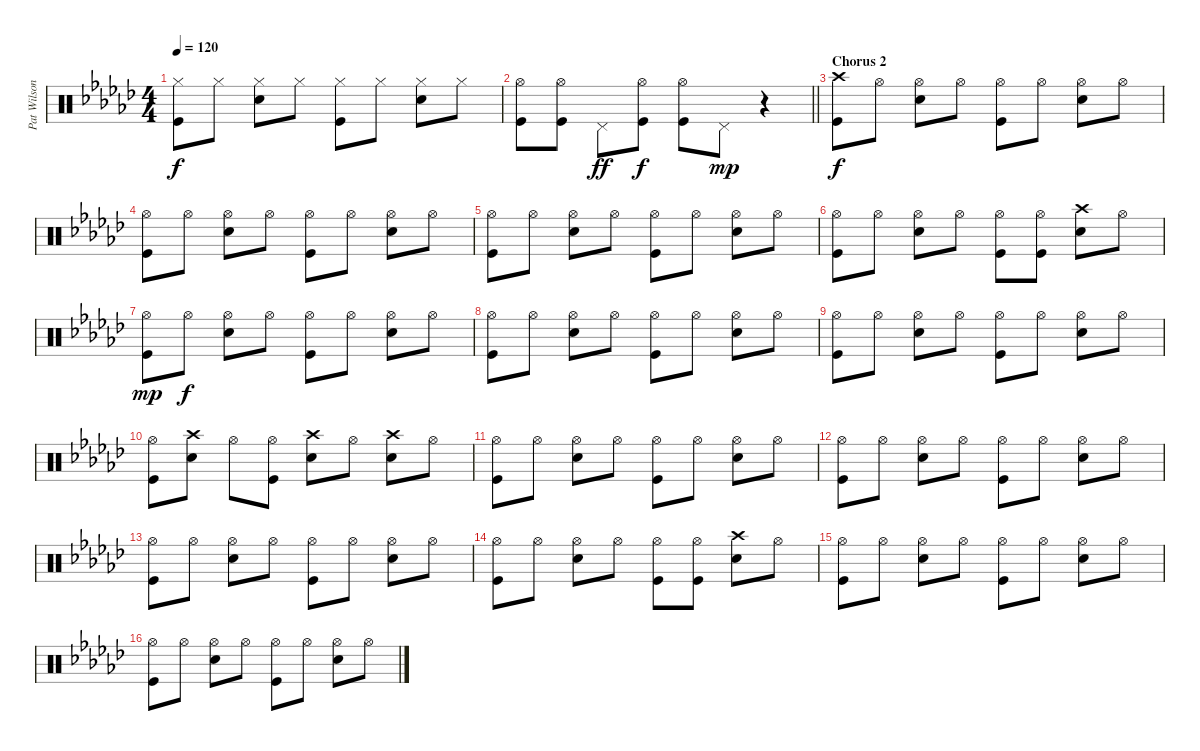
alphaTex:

\track ("Pat Wilson" "Pat Wilson") {instrument percussion}
\staff {score}
\articulation defaults
\ts (4 4)
\tempo 120
\clef neutral
\ks gb
("Hi-Hat (closed)" "Kick (hit)").8{dy f} "Hi-Hat (closed)".8 ("Hi-Hat (closed)" "Snare (hit) 2").8 "Hi-Hat (closed)".8 ("Hi-Hat (closed)" "Kick (hit)").8 "Hi-Hat (closed)".8 ("Hi-Hat (closed)" "Snare (hit) 2").8 "Hi-Hat (closed)".8 |
\barLineRight lightlight
("Hi-Hat (open)" "Kick (hit)").8 ("Hi-Hat (open)" "Kick (hit)").8 "Pedal Hi-Hat (hit)".8{dy ff} ("Hi-Hat (open)" "Kick (hit)").8{dy f} ("Hi-Hat (open)" "Kick (hit)").8 "Pedal Hi-Hat (hit)".8{dy mp} r.4 |
\section ("" "Chorus 2")
("Crash high (hit)" "Kick (hit)").8{dy f} "Hi-Hat (open)".8 ("Hi-Hat (open)" "Snare (hit) 2").8 "Hi-Hat (open)".8 ("Hi-Hat (open)" "Kick (hit)").8 "Hi-Hat (open)".8 ("Hi-Hat (open)" "Snare (hit) 2").8 "Hi-Hat (open)".8 |
("Hi-Hat (open)" "Kick (hit)").8 "Hi-Hat (open)".8 ("Hi-Hat (open)" "Snare (hit) 2").8 "Hi-Hat (open)".8 ("Hi-Hat (open)" "Kick (hit)").8 "Hi-Hat (open)".8 ("Hi-Hat (open)" "Snare (hit) 2").8 "Hi-Hat (open)".8 |
("Hi-Hat (open)" "Kick (hit)").8 "Hi-Hat (open)".8 ("Hi-Hat (open)" "Snare (hit) 2").8 "Hi-Hat (open)".8 ("Hi-Hat (open)" "Kick (hit)").8 "Hi-Hat (open)".8 ("Hi-Hat (open)" "Snare (hit) 2").8 "Hi-Hat (open)".8 |
("Hi-Hat (open)" "Kick (hit)").8 "Hi-Hat (open)".8 ("Hi-Hat (open)" "Snare (hit) 2").8 "Hi-Hat (open)".8 ("Hi-Hat (open)" "Kick (hit)").8 ("Hi-Hat (open)" "Kick (hit)").8 ("Crash high (hit)" "Snare (hit) 2").8 "Hi-Hat (open)".8 |
("Hi-Hat (open)" "Kick (hit)").8{dy mp} "Hi-Hat (open)".8{dy f} ("Hi-Hat (open)" "Snare (hit) 2").8 "Hi-Hat (open)".8 ("Hi-Hat (open)" "Kick (hit)").8 "Hi-Hat (open)".8 ("Hi-Hat (open)" "Snare (hit) 2").8 "Hi-Hat (open)".8 |
("Hi-Hat (open)" "Kick (hit)").8 "Hi-Hat (open)".8 ("Hi-Hat (open)" "Snare (hit) 2").8 "Hi-Hat (open)".8 ("Hi-Hat (open)" "Kick (hit)").8 "Hi-Hat (open)".8 ("Hi-Hat (open)" "Snare (hit) 2").8 "Hi-Hat (open)".8 |
("Hi-Hat (open)" "Kick (hit)").8 "Hi-Hat (open)".8 ("Hi-Hat (open)" "Snare (hit) 2").8 "Hi-Hat (open)".8 ("Hi-Hat (open)" "Kick (hit)").8 "Hi-Hat (open)".8 ("Hi-Hat (open)" "Snare (hit) 2").8 "Hi-Hat (open)".8 |
("Hi-Hat (open)" "Kick (hit)").8 ("Crash high (hit)" "Snare (hit) 2").8 "Hi-Hat (open)".8 ("Hi-Hat (open)" "Kick (hit)").8 ("Crash high (hit)" "Snare (hit) 2").8 "Hi-Hat (open)".8 ("Crash high (hit)" "Snare (hit) 2").8 "Hi-Hat (open)".8 |
("Hi-Hat (open)" "Kick (hit)").8 "Hi-Hat (open)".8 ("Hi-Hat (open)" "Snare (hit) 2").8 "Hi-Hat (open)".8 ("Hi-Hat (open)" "Kick (hit)").8 "Hi-Hat (open)".8 ("Hi-Hat (open)" "Snare (hit) 2").8 "Hi-Hat (open)".8 |
("Hi-Hat (open)" "Kick (hit)").8 "Hi-Hat (open)".8 ("Hi-Hat (open)" "Snare (hit) 2").8 "Hi-Hat (open)".8 ("Hi-Hat (open)" "Kick (hit)").8 "Hi-Hat (open)".8 ("Hi-Hat (open)" "Snare (hit) 2").8 "Hi-Hat (open)".8 |
("Hi-Hat (open)" "Kick (hit)").8 "Hi-Hat (open)".8 ("Hi-Hat (open)" "Snare (hit) 2").8 "Hi-Hat (open)".8 ("Hi-Hat (open)" "Kick (hit)").8 "Hi-Hat (open)".8 ("Hi-Hat (open)" "Snare (hit) 2").8 "Hi-Hat (open)".8 |
("Hi-Hat (open)" "Kick (hit)").8 "Hi-Hat (open)".8 ("Hi-Hat (open)" "Snare (hit) 2").8 "Hi-Hat (open)".8 ("Hi-Hat (open)" "Kick (hit)").8 ("Hi-Hat (open)" "Kick (hit)").8 ("Crash high (hit)" "Snare (hit) 2").8 "Hi-Hat (open)".8 |
("Hi-Hat (open)" "Kick (hit)").8 "Hi-Hat (open)".8 ("Hi-Hat (open)" "Snare (hit) 2").8 "Hi-Hat (open)".8 ("Hi-Hat (open)" "Kick (hit)").8 "Hi-Hat (open)".8 ("Hi-Hat (open)" "Snare (hit) 2").8 "Hi-Hat (open)".8 |
("Hi-Hat (open)" "Kick (hit)").8 "Hi-Hat (open)".8 ("Hi-Hat (open)" "Snare (hit) 2").8 "Hi-Hat (open)".8 ("Hi-Hat (open)" "Kick (hit)").8 "Hi-Hat (open)".8 ("Hi-Hat (open)" "Snare (hit) 2").8 "Hi-Hat (open)".8
